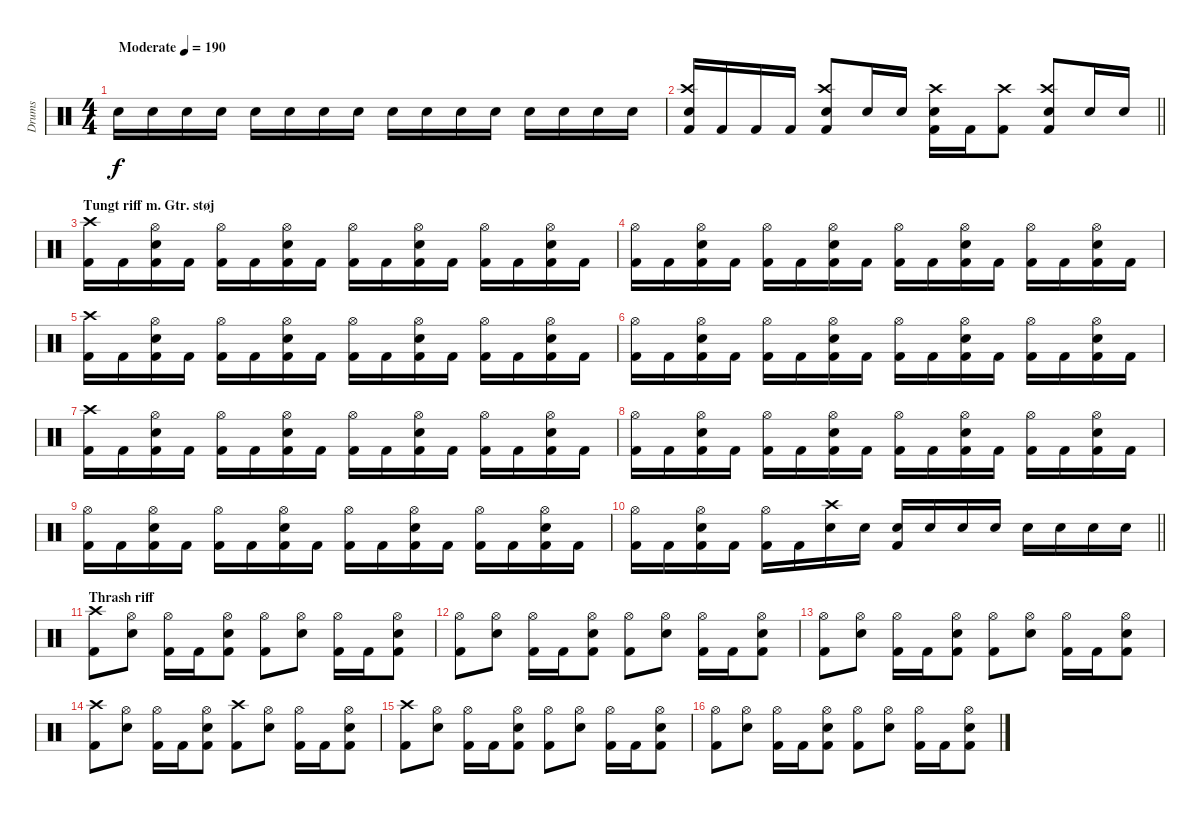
\track ("Drums" "Drums") {instrument percussion}
\staff {score}
\articulation defaults
\ts (4 4)
\tempo (190 "Moderate")
\clef neutral
\ks c "Snare (hit) 2".16{dy f} "Snare (hit) 2".16 "Snare (hit) 2".16 "Snare (hit) 2".16 "Snare (hit) 2".16 "Snare (hit) 2".16 "Snare (hit) 2".16 "Snare (hit) 2".16 "Snare (hit) 2".16 "Snare (hit) 2".16 "Snare (hit) 2".16 "Snare (hit) 2".16 "Snare (hit) 2".16 "Snare (hit) 2".16 "Snare (hit) 2".16 "Snare (hit) 2".16
|
\barLineRight lightlight
("Crash high (hit)" "Snare (hit) 2" "Kick (hit) 2").16 "Kick (hit) 2".16 "Kick (hit) 2".16 "Kick (hit) 2".16 ("Crash high (hit)" "Snare (hit) 2" "Kick (hit) 2").8 "Snare (hit) 2".16 "Snare (hit) 2".16 ("Crash high (hit)" "Snare (hit) 2" "Kick (hit) 2").16 "Kick (hit) 2".16 ("Crash high (hit)" "Kick (hit) 2").8 ("Crash high (hit)" "Snare (hit) 2" "Kick (hit) 2").8 "Snare (hit) 2".16 "Snare (hit) 2".16 |
\section ("" "Tungt riff m. Gtr. støj")
("Crash high (hit)" "Kick (hit) 2").16 "Kick (hit) 2".16 ("Hi-Hat (open)" "Snare (hit) 2" "Kick (hit) 2").16 "Kick (hit) 2".16 ("Hi-Hat (open)" "Kick (hit) 2").16 "Kick (hit) 2".16 ("Hi-Hat (open)" "Snare (hit) 2" "Kick (hit) 2").16 "Kick (hit) 2".16 ("Hi-Hat (open)" "Kick (hit) 2").16 "Kick (hit) 2".16 ("Hi-Hat (open)" "Snare (hit) 2" "Kick (hit) 2").16 "Kick (hit) 2".16 ("Hi-Hat (open)" "Kick (hit) 2").16 "Kick (hit) 2".16 ("Hi-Hat (open)" "Snare (hit) 2" "Kick (hit) 2").16 "Kick (hit) 2".16 |
("Hi-Hat (open)" "Kick (hit) 2").16 "Kick (hit) 2".16 ("Hi-Hat (open)" "Snare (hit) 2" "Kick (hit) 2").16 "Kick (hit) 2".16 ("Hi-Hat (open)" "Kick (hit) 2").16 "Kick (hit) 2".16 ("Hi-Hat (open)" "Snare (hit) 2" "Kick (hit) 2").16 "Kick (hit) 2".16 ("Hi-Hat (open)" "Kick (hit) 2").16 "Kick (hit) 2".16 ("Hi-Hat (open)" "Snare (hit) 2" "Kick (hit) 2").16 "Kick (hit) 2".16 ("Hi-Hat (open)" "Kick (hit) 2").16 "Kick (hit) 2".16 ("Hi-Hat (open)" "Snare (hit) 2" "Kick (hit) 2").16 "Kick (hit) 2".16 |
("Crash high (hit)" "Kick (hit) 2").16 "Kick (hit) 2".16 ("Hi-Hat (open)" "Snare (hit) 2" "Kick (hit) 2").16 "Kick (hit) 2".16 ("Hi-Hat (open)" "Kick (hit) 2").16 "Kick (hit) 2".16 ("Hi-Hat (open)" "Snare (hit) 2" "Kick (hit) 2").16 "Kick (hit) 2".16 ("Hi-Hat (open)" "Kick (hit) 2").16 "Kick (hit) 2".16 ("Hi-Hat (open)" "Snare (hit) 2" "Kick (hit) 2").16 "Kick (hit) 2".16 ("Hi-Hat (open)" "Kick (hit) 2").16 "Kick (hit) 2".16 ("Hi-Hat (open)" "Snare (hit) 2" "Kick (hit) 2").16 "Kick (hit) 2".16 |
("Hi-Hat (open)" "Kick (hit) 2").16 "Kick (hit) 2".16 ("Hi-Hat (open)" "Snare (hit) 2" "Kick (hit) 2").16 "Kick (hit) 2".16 ("Hi-Hat (open)" "Kick (hit) 2").16 "Kick (hit) 2".16 ("Hi-Hat (open)" "Snare (hit) 2" "Kick (hit) 2").16 "Kick (hit) 2".16 ("Hi-Hat (open)" "Kick (hit) 2").16 "Kick (hit) 2".16 ("Hi-Hat (open)" "Snare (hit) 2" "Kick (hit) 2").16 "Kick (hit) 2".16 ("Hi-Hat (open)" "Kick (hit) 2").16 "Kick (hit) 2".16 ("Hi-Hat (open)" "Snare (hit) 2" "Kick (hit) 2").16 "Kick (hit) 2".16 |
("Crash high (hit)" "Kick (hit) 2").16 "Kick (hit) 2".16 ("Hi-Hat (open)" "Snare (hit) 2" "Kick (hit) 2").16 "Kick (hit) 2".16 ("Hi-Hat (open)" "Kick (hit) 2").16 "Kick (hit) 2".16 ("Hi-Hat (open)" "Snare (hit) 2" "Kick (hit) 2").16 "Kick (hit) 2".16 ("Hi-Hat (open)" "Kick (hit) 2").16 "Kick (hit) 2".16 ("Hi-Hat (open)" "Snare (hit) 2" "Kick (hit) 2").16 "Kick (hit) 2".16 ("Hi-Hat (open)" "Kick (hit) 2").16 "Kick (hit) 2".16 ("Hi-Hat (open)" "Snare (hit) 2" "Kick (hit) 2").16 "Kick (hit) 2".16 |
("Hi-Hat (open)" "Kick (hit) 2").16 "Kick (hit) 2".16 ("Hi-Hat (open)" "Snare (hit) 2" "Kick (hit) 2").16 "Kick (hit) 2".16 ("Hi-Hat (open)" "Kick (hit) 2").16 "Kick (hit) 2".16 ("Hi-Hat (open)" "Snare (hit) 2" "Kick (hit) 2").16 "Kick (hit) 2".16 ("Hi-Hat (open)" "Kick (hit) 2").16 "Kick (hit) 2".16 ("Hi-Hat (open)" "Snare (hit) 2" "Kick (hit) 2").16 "Kick (hit) 2".16 ("Hi-Hat (open)" "Kick (hit) 2").16 "Kick (hit) 2".16 ("Hi-Hat (open)" "Snare (hit) 2" "Kick (hit) 2").16 "Kick (hit) 2".16 |
("Hi-Hat (open)" "Kick (hit) 2").16 "Kick (hit) 2".16 ("Hi-Hat (open)" "Snare (hit) 2" "Kick (hit) 2").16 "Kick (hit) 2".16 ("Hi-Hat (open)" "Kick (hit) 2").16 "Kick (hit) 2".16 ("Hi-Hat (open)" "Snare (hit) 2" "Kick (hit) 2").16 "Kick (hit) 2".16 ("Hi-Hat (open)" "Kick (hit) 2").16 "Kick (hit) 2".16 ("Hi-Hat (open)" "Snare (hit) 2" "Kick (hit) 2").16 "Kick (hit) 2".16 ("Hi-Hat (open)" "Kick (hit) 2").16 "Kick (hit) 2".16 ("Hi-Hat (open)" "Snare (hit) 2" "Kick (hit) 2").16 "Kick (hit) 2".16 |
\barLineRight lightlight
("Hi-Hat (open)" "Kick (hit) 2").16 "Kick (hit) 2".16 ("Hi-Hat (open)" "Snare (hit) 2" "Kick (hit) 2").16 "Kick (hit) 2".16 ("Hi-Hat (open)" "Kick (hit) 2").16 "Kick (hit) 2".16 ("Crash high (hit)" "Snare (hit) 2").16 "Snare (hit) 2".16 ("Snare (hit) 2" "Kick (hit) 2").16 "Snare (hit) 2".16 "Snare (hit) 2".16 "Snare (hit) 2".16 "Snare (hit) 2".16 "Snare (hit) 2".16 "Snare (hit) 2".16 "Snare (hit) 2".16 |
\section ("" "Thrash riff")
("Crash high (hit)" "Kick (hit) 2").8 ("Hi-Hat (open)" "Snare (hit) 2").8 ("Hi-Hat (open)" "Kick (hit) 2").16 "Kick (hit) 2".16 ("Hi-Hat (open)" "Snare (hit) 2" "Kick (hit) 2").8 ("Hi-Hat (open)" "Kick (hit) 2").8 ("Hi-Hat (open)" "Snare (hit) 2").8 ("Hi-Hat (open)" "Kick (hit) 2").16 "Kick (hit) 2".16 ("Hi-Hat (open)" "Snare (hit) 2" "Kick (hit) 2").8 |
("Hi-Hat (open)" "Kick (hit) 2").8 ("Hi-Hat (open)" "Snare (hit) 2").8 ("Hi-Hat (open)" "Kick (hit) 2").16 "Kick (hit) 2".16 ("Hi-Hat (open)" "Snare (hit) 2" "Kick (hit) 2").8 ("Hi-Hat (open)" "Kick (hit) 2").8 ("Hi-Hat (open)" "Snare (hit) 2").8 ("Hi-Hat (open)" "Kick (hit) 2").16 "Kick (hit) 2".16 ("Hi-Hat (open)" "Snare (hit) 2" "Kick (hit) 2").8 |
("Hi-Hat (open)" "Kick (hit) 2").8 ("Hi-Hat (open)" "Snare (hit) 2").8 ("Hi-Hat (open)" "Kick (hit) 2").16 "Kick (hit) 2".16 ("Hi-Hat (open)" "Snare (hit) 2" "Kick (hit) 2").8 ("Hi-Hat (open)" "Kick (hit) 2").8 ("Hi-Hat (open)" "Snare (hit) 2").8 ("Hi-Hat (open)" "Kick (hit) 2").16 "Kick (hit) 2".16 ("Hi-Hat (open)" "Snare (hit) 2" "Kick (hit) 2").8 |
("Crash high (hit)" "Kick (hit) 2").8 ("Hi-Hat (open)" "Snare (hit) 2").8 ("Hi-Hat (open)" "Kick (hit) 2").16 "Kick (hit) 2".16 ("Hi-Hat (open)" "Snare (hit) 2" "Kick (hit) 2").8 ("Crash high (hit)" "Kick (hit) 2").8 ("Hi-Hat (open)" "Snare (hit) 2").8 ("Hi-Hat (open)" "Kick (hit) 2").16 "Kick (hit) 2".16 ("Hi-Hat (open)" "Snare (hit) 2" "Kick (hit) 2").8 |
("Crash high (hit)" "Kick (hit) 2").8 ("Hi-Hat (open)" "Snare (hit) 2").8 ("Hi-Hat (open)" "Kick (hit) 2").16 "Kick (hit) 2".16 ("Hi-Hat (open)" "Snare (hit) 2" "Kick (hit) 2").8 ("Hi-Hat (open)" "Kick (hit) 2").8 ("Hi-Hat (open)" "Snare (hit) 2").8 ("Hi-Hat (open)" "Kick (hit) 2").16 "Kick (hit) 2".16 ("Hi-Hat (open)" "Snare (hit) 2" "Kick (hit) 2").8 |
("Hi-Hat (open)" "Kick (hit) 2").8 ("Hi-Hat (open)" "Snare (hit) 2").8 ("Hi-Hat (open)" "Kick (hit) 2").16 "Kick (hit) 2".16 ("Hi-Hat (open)" "Snare (hit) 2" "Kick (hit) 2").8 ("Hi-Hat (open)" "Kick (hit) 2").8 ("Hi-Hat (open)" "Snare (hit) 2").8 ("Hi-Hat (open)" "Kick (hit) 2").16 "Kick (hit) 2".16 ("Hi-Hat (open)" "Snare (hit) 2" "Kick (hit) 2").8
